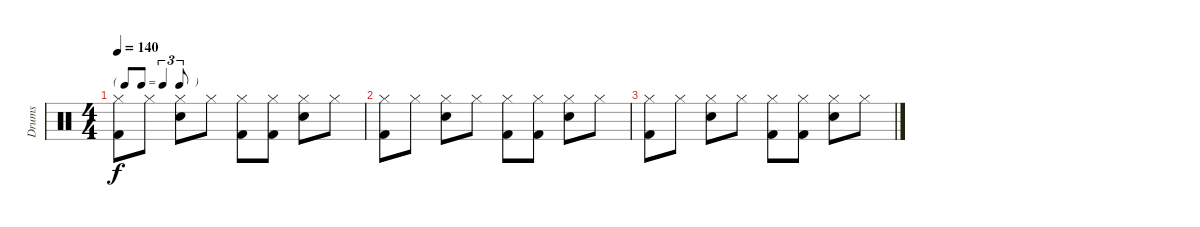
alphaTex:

\track ("Drums" "Drums") {instrument percussion}
\staff {score}
\articulation defaults
\ts (4 4)
\tf triplet8th
\tempo 140
\clef neutral
\ks c
("Hi-Hat (closed)" "Kick (hit) 2").8{dy f} "Hi-Hat (closed)".8 ("Hi-Hat (closed)" "Electric Snare (hit)").8 "Hi-Hat (closed)".8 ("Hi-Hat (closed)" "Kick (hit) 2").8 ("Hi-Hat (closed)" "Kick (hit) 2").8 ("Hi-Hat (closed)" "Electric Snare (hit)").8 "Hi-Hat (closed)".8 |
("Hi-Hat (closed)" "Kick (hit) 2").8{volume 0} "Hi-Hat (closed)".8 ("Hi-Hat (closed)" "Electric Snare (hit)").8 "Hi-Hat (closed)".8 ("Hi-Hat (closed)" "Kick (hit) 2").8 ("Hi-Hat (closed)" "Kick (hit) 2").8 ("Hi-Hat (closed)" "Electric Snare (hit)").8 "Hi-Hat (closed)".8 |
("Hi-Hat (closed)" "Kick (hit) 2").8 "Hi-Hat (closed)".8 ("Hi-Hat (closed)" "Electric Snare (hit)").8 "Hi-Hat (closed)".8 ("Hi-Hat (closed)" "Kick (hit) 2").8 ("Hi-Hat (closed)" "Kick (hit) 2").8 ("Hi-Hat (closed)" "Electric Snare (hit)").8 "Hi-Hat (closed)".8
